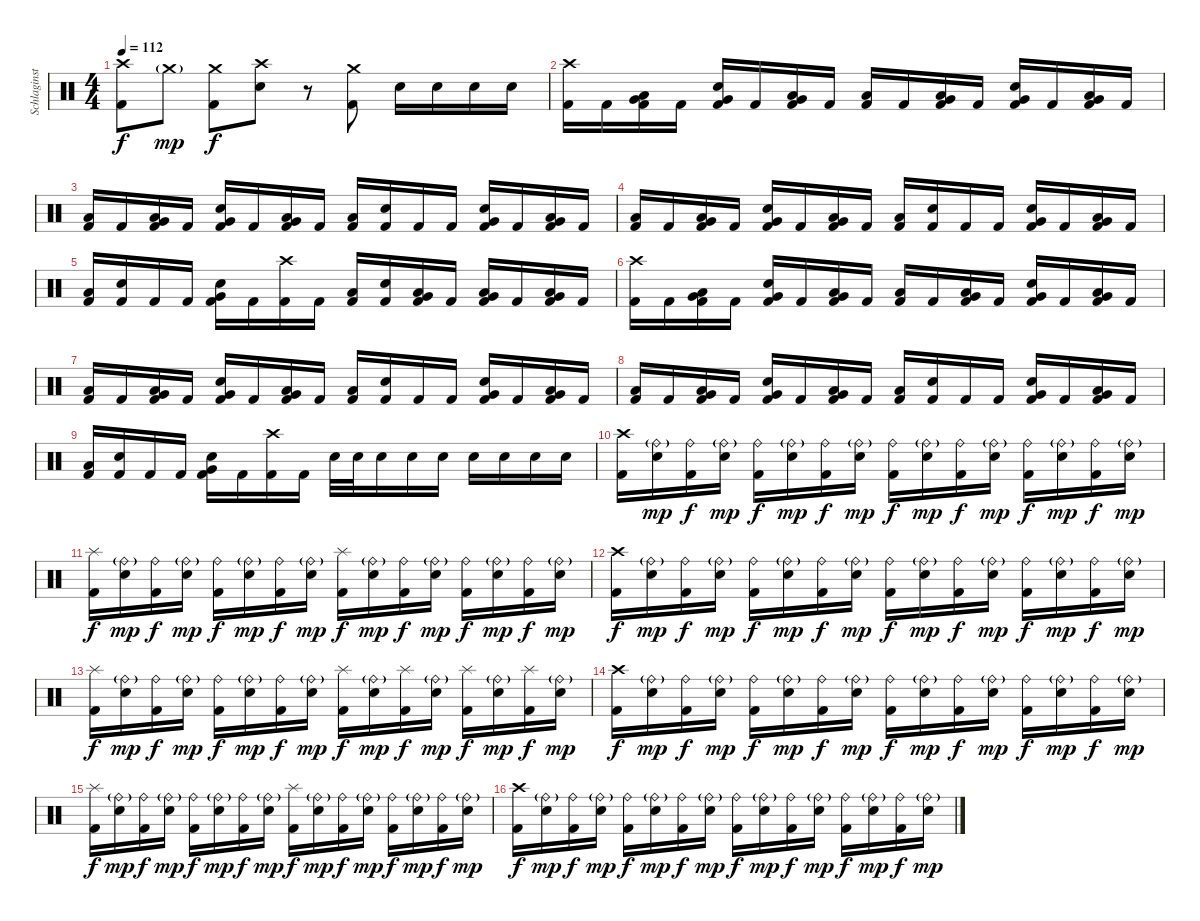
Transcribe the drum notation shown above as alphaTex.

\track ("Schlaginstrumente - Auswahl" "Schlaginst") {instrument percussion}
\staff {score}
\articulation defaults
\ts (4 4)
\tempo 112
\clef neutral
\ks c
("Crash high (hit)" "Kick (hit) 2").8{dy f} "Crash medium (hit)"{g}.8{dy mp} ("Crash medium (hit)" "Kick (hit) 2").8{dy f} ("Crash high (hit)" "Snare (hit) 2").8 r.8 ("Crash medium (hit)" "Kick (hit) 2").8 "Snare (hit) 2".16 "Snare (hit) 2".16 "Snare (hit) 2".16 "Snare (hit) 2".16 |
("Crash high (hit)" "Kick (hit) 2").16 "Kick (hit) 2".16 ("Low Tom (hit)" "Very Low Tom (hit)" "Kick (hit) 2").16 "Kick (hit) 2".16 ("Snare (hit) 2" "Very Low Tom (hit)" "Kick (hit) 2").16 "Kick (hit) 2".16 ("Low Tom (hit)" "Very Low Tom (hit)" "Kick (hit) 2").16 "Kick (hit) 2".16 ("Low Floor Tom (hit)" "Kick (hit) 2").16 "Kick (hit) 2".16 ("Low Tom (hit)" "Very Low Tom (hit)" "Kick (hit) 2").16 "Kick (hit) 2".16 ("Snare (hit) 2" "Very Low Tom (hit)" "Kick (hit) 2").16 "Kick (hit) 2".16 ("Low Tom (hit)" "Very Low Tom (hit)" "Kick (hit) 2").16 "Kick (hit) 2".16 |
("Low Floor Tom (hit)" "Kick (hit) 2").16 "Kick (hit) 2".16 ("Low Tom (hit)" "Very Low Tom (hit)" "Kick (hit) 2").16 "Kick (hit) 2".16 ("Snare (hit) 2" "Very Low Tom (hit)" "Kick (hit) 2").16 "Kick (hit) 2".16 ("Low Tom (hit)" "Very Low Tom (hit)" "Kick (hit) 2").16 "Kick (hit) 2".16 ("Low Floor Tom (hit)" "Kick (hit) 2").16 ("Snare (hit) 2" "Kick (hit) 2").16 "Kick (hit) 2".16 "Kick (hit) 2".16 ("Snare (hit) 2" "Very Low Tom (hit)" "Kick (hit) 2").16 "Kick (hit) 2".16 ("Low Tom (hit)" "Very Low Tom (hit)" "Kick (hit) 2").16 "Kick (hit) 2".16 |
("Low Floor Tom (hit)" "Kick (hit) 2").16 "Kick (hit) 2".16 ("Low Tom (hit)" "Very Low Tom (hit)" "Kick (hit) 2").16 "Kick (hit) 2".16 ("Snare (hit) 2" "Very Low Tom (hit)" "Kick (hit) 2").16 "Kick (hit) 2".16 ("Low Tom (hit)" "Very Low Tom (hit)" "Kick (hit) 2").16 "Kick (hit) 2".16 ("Low Floor Tom (hit)" "Kick (hit) 2").16 ("Snare (hit) 2" "Kick (hit) 2").16 "Kick (hit) 2".16 "Kick (hit) 2".16 ("Snare (hit) 2" "Very Low Tom (hit)" "Kick (hit) 2").16 "Kick (hit) 2".16 ("Low Tom (hit)" "Very Low Tom (hit)" "Kick (hit) 2").16 "Kick (hit) 2".16 |
("Low Floor Tom (hit)" "Kick (hit) 2").16 ("Snare (hit) 2" "Kick (hit) 2").16 "Kick (hit) 2".16 "Kick (hit) 2".16 ("Snare (hit) 2" "Very Low Tom (hit)" "Kick (hit) 2").16 "Kick (hit) 2".16 ("Crash high (hit)" "Kick (hit) 2").16 "Kick (hit) 2".16 ("Low Floor Tom (hit)" "Kick (hit) 2").16 ("Snare (hit) 2" "Kick (hit) 2").16 ("Low Tom (hit)" "Very Low Tom (hit)" "Kick (hit) 2").16 "Kick (hit) 2".16 ("Low Tom (hit)" "Very Low Tom (hit)" "Kick (hit) 2").16 "Kick (hit) 2".16 ("Very Low Tom (hit)" "Low Floor Tom (hit)" "Kick (hit) 2").16 "Kick (hit) 2".16 |
("Crash high (hit)" "Kick (hit) 2").16 "Kick (hit) 2".16 ("Low Tom (hit)" "Very Low Tom (hit)" "Kick (hit) 2").16 "Kick (hit) 2".16 ("Snare (hit) 2" "Very Low Tom (hit)" "Kick (hit) 2").16 "Kick (hit) 2".16 ("Low Tom (hit)" "Very Low Tom (hit)" "Kick (hit) 2").16 "Kick (hit) 2".16 ("Low Floor Tom (hit)" "Kick (hit) 2").16 "Kick (hit) 2".16 ("Low Tom (hit)" "Very Low Tom (hit)" "Kick (hit) 2").16 "Kick (hit) 2".16 ("Snare (hit) 2" "Very Low Tom (hit)" "Kick (hit) 2").16 "Kick (hit) 2".16 ("Low Tom (hit)" "Very Low Tom (hit)" "Kick (hit) 2").16 "Kick (hit) 2".16 |
("Low Floor Tom (hit)" "Kick (hit) 2").16 "Kick (hit) 2".16 ("Low Tom (hit)" "Very Low Tom (hit)" "Kick (hit) 2").16 "Kick (hit) 2".16 ("Snare (hit) 2" "Very Low Tom (hit)" "Kick (hit) 2").16 "Kick (hit) 2".16 ("Low Tom (hit)" "Very Low Tom (hit)" "Kick (hit) 2").16 "Kick (hit) 2".16 ("Low Floor Tom (hit)" "Kick (hit) 2").16 ("Snare (hit) 2" "Kick (hit) 2").16 "Kick (hit) 2".16 "Kick (hit) 2".16 ("Snare (hit) 2" "Very Low Tom (hit)" "Kick (hit) 2").16 "Kick (hit) 2".16 ("Low Tom (hit)" "Very Low Tom (hit)" "Kick (hit) 2").16 "Kick (hit) 2".16 |
("Low Floor Tom (hit)" "Kick (hit) 2").16 "Kick (hit) 2".16 ("Low Tom (hit)" "Very Low Tom (hit)" "Kick (hit) 2").16 "Kick (hit) 2".16 ("Snare (hit) 2" "Very Low Tom (hit)" "Kick (hit) 2").16 "Kick (hit) 2".16 ("Low Tom (hit)" "Very Low Tom (hit)" "Kick (hit) 2").16 "Kick (hit) 2".16 ("Low Floor Tom (hit)" "Kick (hit) 2").16 ("Snare (hit) 2" "Kick (hit) 2").16 "Kick (hit) 2".16 "Kick (hit) 2".16 ("Snare (hit) 2" "Very Low Tom (hit)" "Kick (hit) 2").16 "Kick (hit) 2".16 ("Low Tom (hit)" "Very Low Tom (hit)" "Kick (hit) 2").16 "Kick (hit) 2".16 |
("Low Floor Tom (hit)" "Kick (hit) 2").16 ("Snare (hit) 2" "Kick (hit) 2").16 "Kick (hit) 2".16 "Kick (hit) 2".16 ("Snare (hit) 2" "Very Low Tom (hit)" "Kick (hit) 2").16 "Kick (hit) 2".16 ("Crash high (hit)" "Kick (hit) 2").16 "Kick (hit) 2".16 "Snare (hit) 2".32 "Snare (hit) 2".32 "Snare (hit) 2".16 "Snare (hit) 2".16 "Snare (hit) 2".16 "Snare (hit) 2".16 "Snare (hit) 2".16 "Snare (hit) 2".16 "Snare (hit) 2".16 |
("Crash high (hit)" "Kick (hit) 2").16 ("Ride (bell)"{g} "Snare (hit) 2").16{dy mp} ("Ride (bell)" "Kick (hit) 2").16{dy f} ("Ride (bell)"{g} "Snare (hit) 2").16{dy mp} ("Ride (bell)" "Kick (hit) 2").16{dy f} ("Ride (bell)"{g} "Snare (hit) 2").16{dy mp} ("Ride (bell)" "Kick (hit) 2").16{dy f} ("Ride (bell)"{g} "Snare (hit) 2").16{dy mp} ("Ride (bell)" "Kick (hit) 2").16{dy f} ("Ride (bell)"{g} "Snare (hit) 2").16{dy mp} ("Ride (bell)" "Kick (hit) 2").16{dy f} ("Ride (bell)"{g} "Snare (hit) 2").16{dy mp} ("Ride (bell)" "Kick (hit) 2").16{dy f} ("Ride (bell)"{g} "Snare (hit) 2").16{dy mp} ("Ride (bell)" "Kick (hit) 2").16{dy f} ("Ride (bell)"{g} "Snare (hit) 2").16{dy mp} |
("Splash (hit)" "Kick (hit) 2").16{dy f} ("Ride (bell)"{g} "Snare (hit) 2").16{dy mp} ("Ride (bell)" "Kick (hit) 2").16{dy f} ("Ride (bell)"{g} "Snare (hit) 2").16{dy mp} ("Ride (bell)" "Kick (hit) 2").16{dy f} ("Ride (bell)"{g} "Snare (hit) 2").16{dy mp} ("Ride (bell)" "Kick (hit) 2").16{dy f} ("Ride (bell)"{g} "Snare (hit) 2").16{dy mp} ("Splash (hit)" "Kick (hit) 2").16{dy f} ("Ride (bell)"{g} "Snare (hit) 2").16{dy mp} ("Ride (bell)" "Kick (hit) 2").16{dy f} ("Ride (bell)"{g} "Snare (hit) 2").16{dy mp} ("Ride (bell)" "Kick (hit) 2").16{dy f} ("Ride (bell)"{g} "Snare (hit) 2").16{dy mp} ("Ride (bell)" "Kick (hit) 2").16{dy f} ("Ride (bell)"{g} "Snare (hit) 2").16{dy mp} |
("Crash high (hit)" "Kick (hit) 2").16{dy f} ("Ride (bell)"{g} "Snare (hit) 2").16{dy mp} ("Ride (bell)" "Kick (hit) 2").16{dy f} ("Ride (bell)"{g} "Snare (hit) 2").16{dy mp} ("Ride (bell)" "Kick (hit) 2").16{dy f} ("Ride (bell)"{g} "Snare (hit) 2").16{dy mp} ("Ride (bell)" "Kick (hit) 2").16{dy f} ("Ride (bell)"{g} "Snare (hit) 2").16{dy mp} ("Ride (bell)" "Kick (hit) 2").16{dy f} ("Ride (bell)"{g} "Snare (hit) 2").16{dy mp} ("Ride (bell)" "Kick (hit) 2").16{dy f} ("Ride (bell)"{g} "Snare (hit) 2").16{dy mp} ("Ride (bell)" "Kick (hit) 2").16{dy f} ("Ride (bell)"{g} "Snare (hit) 2").16{dy mp} ("Ride (bell)" "Kick (hit) 2").16{dy f} ("Ride (bell)"{g} "Snare (hit) 2").16{dy mp} |
("Splash (hit)" "Kick (hit) 2").16{dy f} ("Ride (bell)"{g} "Snare (hit) 2").16{dy mp} ("Ride (bell)" "Kick (hit) 2").16{dy f} ("Ride (bell)"{g} "Snare (hit) 2").16{dy mp} ("Ride (bell)" "Kick (hit) 2").16{dy f} ("Ride (bell)"{g} "Snare (hit) 2").16{dy mp} ("Ride (bell)" "Kick (hit) 2").16{dy f} ("Ride (bell)"{g} "Snare (hit) 2").16{dy mp} ("Splash (hit)" "Kick (hit) 2").16{dy f} ("Ride (bell)"{g} "Snare (hit) 2").16{dy mp} ("Splash (hit)" "Kick (hit) 2").16{dy f} ("Ride (bell)"{g} "Snare (hit) 2").16{dy mp} ("Splash (hit)" "Kick (hit) 2").16{dy f} ("Ride (bell)"{g} "Snare (hit) 2").16{dy mp} ("Splash (hit)" "Kick (hit) 2").16{dy f} ("Ride (bell)"{g} "Snare (hit) 2").16{dy mp} |
("Crash high (hit)" "Kick (hit) 2").16{dy f} ("Ride (bell)"{g} "Snare (hit) 2").16{dy mp} ("Ride (bell)" "Kick (hit) 2").16{dy f} ("Ride (bell)"{g} "Snare (hit) 2").16{dy mp} ("Ride (bell)" "Kick (hit) 2").16{dy f} ("Ride (bell)"{g} "Snare (hit) 2").16{dy mp} ("Ride (bell)" "Kick (hit) 2").16{dy f} ("Ride (bell)"{g} "Snare (hit) 2").16{dy mp} ("Ride (bell)" "Kick (hit) 2").16{dy f} ("Ride (bell)"{g} "Snare (hit) 2").16{dy mp} ("Ride (bell)" "Kick (hit) 2").16{dy f} ("Ride (bell)"{g} "Snare (hit) 2").16{dy mp} ("Ride (bell)" "Kick (hit) 2").16{dy f} ("Ride (bell)"{g} "Snare (hit) 2").16{dy mp} ("Ride (bell)" "Kick (hit) 2").16{dy f} ("Ride (bell)"{g} "Snare (hit) 2").16{dy mp} |
("Splash (hit)" "Kick (hit) 2").16{dy f} ("Ride (bell)"{g} "Snare (hit) 2").16{dy mp} ("Ride (bell)" "Kick (hit) 2").16{dy f} ("Ride (bell)"{g} "Snare (hit) 2").16{dy mp} ("Ride (bell)" "Kick (hit) 2").16{dy f} ("Ride (bell)"{g} "Snare (hit) 2").16{dy mp} ("Ride (bell)" "Kick (hit) 2").16{dy f} ("Ride (bell)"{g} "Snare (hit) 2").16{dy mp} ("Splash (hit)" "Kick (hit) 2").16{dy f} ("Ride (bell)"{g} "Snare (hit) 2").16{dy mp} ("Ride (bell)" "Kick (hit) 2").16{dy f} ("Ride (bell)"{g} "Snare (hit) 2").16{dy mp} ("Ride (bell)" "Kick (hit) 2").16{dy f} ("Ride (bell)"{g} "Snare (hit) 2").16{dy mp} ("Ride (bell)" "Kick (hit) 2").16{dy f} ("Ride (bell)"{g} "Snare (hit) 2").16{dy mp} |
("Crash high (hit)" "Kick (hit) 2").16{dy f} ("Ride (bell)"{g} "Snare (hit) 2").16{dy mp} ("Ride (bell)" "Kick (hit) 2").16{dy f} ("Ride (bell)"{g} "Snare (hit) 2").16{dy mp} ("Ride (bell)" "Kick (hit) 2").16{dy f} ("Ride (bell)"{g} "Snare (hit) 2").16{dy mp} ("Ride (bell)" "Kick (hit) 2").16{dy f} ("Ride (bell)"{g} "Snare (hit) 2").16{dy mp} ("Ride (bell)" "Kick (hit) 2").16{dy f} ("Ride (bell)"{g} "Snare (hit) 2").16{dy mp} ("Ride (bell)" "Kick (hit) 2").16{dy f} ("Ride (bell)"{g} "Snare (hit) 2").16{dy mp} ("Ride (bell)" "Kick (hit) 2").16{dy f} ("Ride (bell)"{g} "Snare (hit) 2").16{dy mp} ("Ride (bell)" "Kick (hit) 2").16{dy f} ("Ride (bell)"{g} "Snare (hit) 2").16{dy mp}
